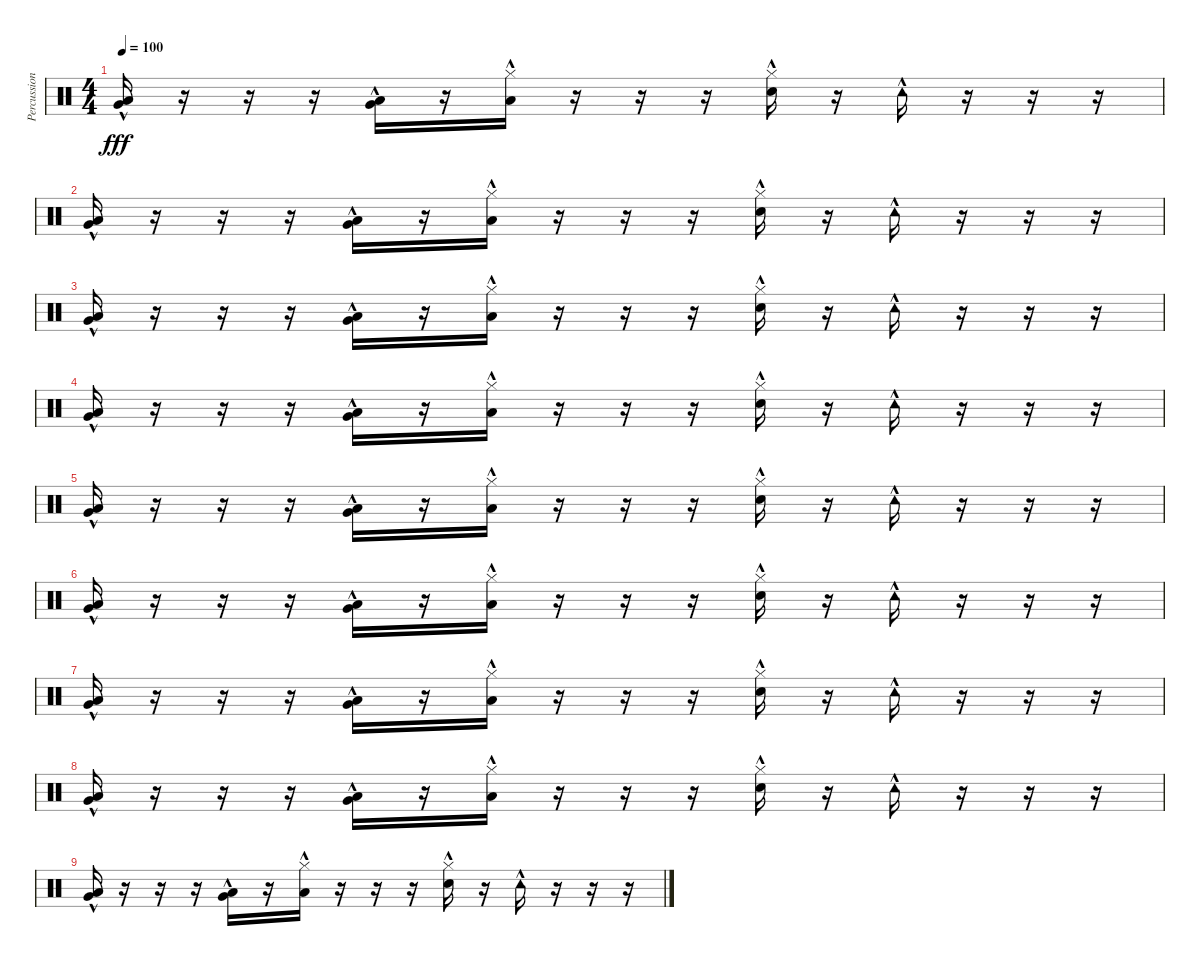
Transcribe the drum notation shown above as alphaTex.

\track ("Percussion" "Percussion") {instrument percussion}
\staff {score}
\articulation defaults
\ts (4 4)
\tempo 100
\clef neutral
\ks c
("Low Floor Tom (hit)"{hac} "Very Low Tom (hit)"{hac}).16{dy fff} r.16 r.16 r.16 ("Low Floor Tom (hit)"{hac} "Very Low Tom (hit)"{hac}).16 r.16 ("Hi-Hat (closed)"{hac} "Low Tom (hit)"{hac}).16 r.16 r.16 r.16 ("Hi-Hat (closed)"{hac} "Hand Clap (hit)").16 r.16 "Tambourine (hit)"{hac}.16 r.16 r.16 r.16 |
("Low Floor Tom (hit)"{hac} "Very Low Tom (hit)"{hac}).16 r.16 r.16 r.16 ("Low Floor Tom (hit)"{hac} "Very Low Tom (hit)"{hac}).16 r.16 ("Hi-Hat (closed)"{hac} "Low Tom (hit)"{hac}).16 r.16 r.16 r.16 ("Hi-Hat (closed)"{hac} "Hand Clap (hit)").16 r.16 "Tambourine (hit)"{hac}.16 r.16 r.16 r.16 |
("Low Floor Tom (hit)"{hac} "Very Low Tom (hit)"{hac}).16 r.16 r.16 r.16 ("Low Floor Tom (hit)"{hac} "Very Low Tom (hit)"{hac}).16 r.16 ("Hi-Hat (closed)"{hac} "Low Tom (hit)"{hac}).16 r.16 r.16 r.16 ("Hi-Hat (closed)"{hac} "Hand Clap (hit)").16 r.16 "Tambourine (hit)"{hac}.16 r.16 r.16 r.16 |
("Low Floor Tom (hit)"{hac} "Very Low Tom (hit)"{hac}).16 r.16 r.16 r.16 ("Low Floor Tom (hit)"{hac} "Very Low Tom (hit)"{hac}).16 r.16 ("Hi-Hat (closed)"{hac} "Low Tom (hit)"{hac}).16 r.16 r.16 r.16 ("Hi-Hat (closed)"{hac} "Hand Clap (hit)").16 r.16 "Tambourine (hit)"{hac}.16 r.16 r.16 r.16 |
("Low Floor Tom (hit)"{hac} "Very Low Tom (hit)"{hac}).16 r.16 r.16 r.16 ("Low Floor Tom (hit)"{hac} "Very Low Tom (hit)"{hac}).16 r.16 ("Hi-Hat (closed)"{hac} "Low Tom (hit)"{hac}).16 r.16 r.16 r.16 ("Hi-Hat (closed)"{hac} "Hand Clap (hit)").16 r.16 "Tambourine (hit)"{hac}.16 r.16 r.16 r.16 |
("Low Floor Tom (hit)"{hac} "Very Low Tom (hit)"{hac}).16 r.16 r.16 r.16 ("Low Floor Tom (hit)"{hac} "Very Low Tom (hit)"{hac}).16 r.16 ("Hi-Hat (closed)"{hac} "Low Tom (hit)"{hac}).16 r.16 r.16 r.16 ("Hi-Hat (closed)"{hac} "Hand Clap (hit)").16 r.16 "Tambourine (hit)"{hac}.16 r.16 r.16 r.16 |
("Low Floor Tom (hit)"{hac} "Very Low Tom (hit)"{hac}).16 r.16 r.16 r.16 ("Low Floor Tom (hit)"{hac} "Very Low Tom (hit)"{hac}).16 r.16 ("Hi-Hat (closed)"{hac} "Low Tom (hit)"{hac}).16 r.16 r.16 r.16 ("Hi-Hat (closed)"{hac} "Hand Clap (hit)").16 r.16 "Tambourine (hit)"{hac}.16 r.16 r.16 r.16 |
("Low Floor Tom (hit)"{hac} "Very Low Tom (hit)"{hac}).16 r.16 r.16 r.16 ("Low Floor Tom (hit)"{hac} "Very Low Tom (hit)"{hac}).16 r.16 ("Hi-Hat (closed)"{hac} "Low Tom (hit)"{hac}).16 r.16 r.16 r.16 ("Hi-Hat (closed)"{hac} "Hand Clap (hit)").16 r.16 "Tambourine (hit)"{hac}.16 r.16 r.16 r.16 |
("Low Floor Tom (hit)"{hac} "Very Low Tom (hit)"{hac}).16 r.16 r.16 r.16 ("Low Floor Tom (hit)"{hac} "Very Low Tom (hit)"{hac}).16 r.16 ("Hi-Hat (closed)"{hac} "Low Tom (hit)"{hac}).16 r.16 r.16 r.16 ("Hi-Hat (closed)"{hac} "Hand Clap (hit)").16 r.16 "Tambourine (hit)"{hac}.16 r.16 r.16 r.16
